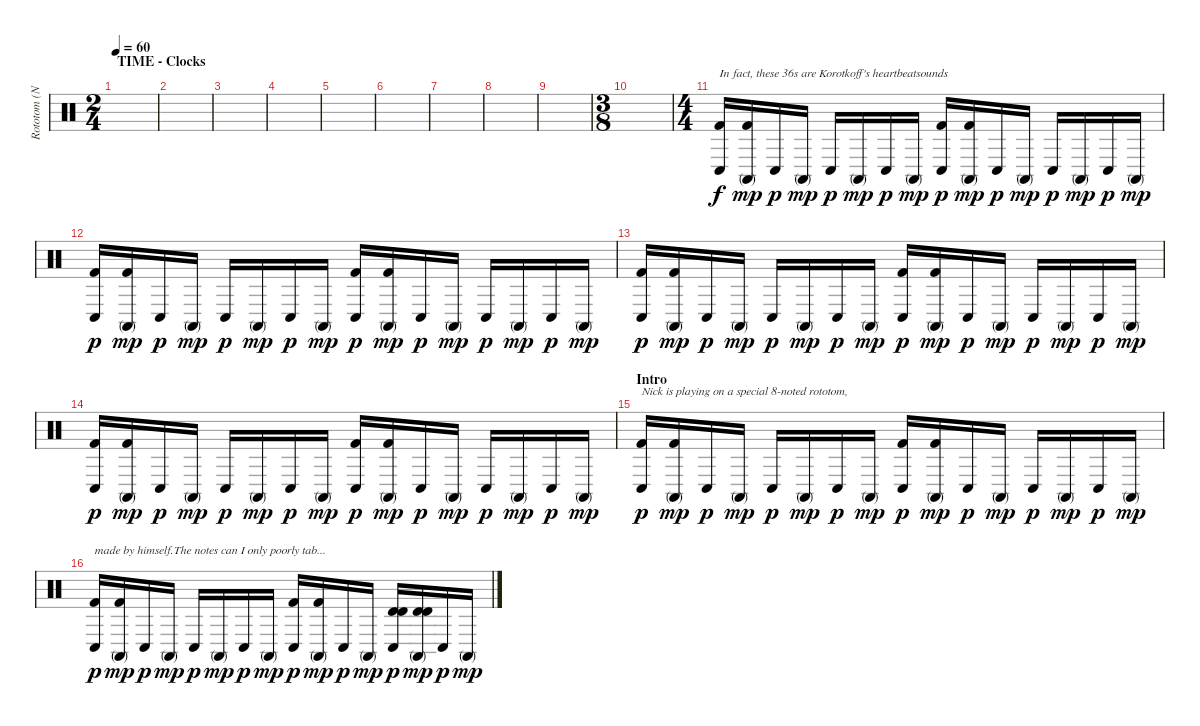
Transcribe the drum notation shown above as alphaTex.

\track ("Rototom (Nick)" "Rototom (N") {instrument percussion}
\staff {score}
\articulation defaults
\ts (2 4)
\section ("" "TIME - Clocks")
\tempo 60
\clef neutral
\ks c
|
|
|
|
|
|
|
|
|
\ts (3 8)
|
\ts (4 4)
("Kick (hit) 2" "Conga low (hit)").16{txt "In fact, these 36s are Korotkoff's heartbeatsounds" volume 13} ("Kick (hit) 2" "Conga high (mute)").16{dy mp} "Conga low (hit)".16{dy p} "Conga high (mute)".16{dy mp} "Conga low (hit)".16{dy p} "Conga high (mute)".16{dy mp} "Conga low (hit)".16{dy p} "Conga high (mute)".16{dy mp} ("Kick (hit) 2" "Conga low (hit)").16{dy p} ("Kick (hit) 2" "Conga high (mute)").16{dy mp} "Conga low (hit)".16{dy p} "Conga high (mute)".16{dy mp} "Conga low (hit)".16{dy p} "Conga high (mute)".16{dy mp} "Conga low (hit)".16{dy p} "Conga high (mute)".16{dy mp} |
("Kick (hit) 2" "Conga low (hit)").16{dy p} ("Kick (hit) 2" "Conga high (mute)").16{dy mp} "Conga low (hit)".16{dy p} "Conga high (mute)".16{dy mp} "Conga low (hit)".16{dy p} "Conga high (mute)".16{dy mp} "Conga low (hit)".16{dy p} "Conga high (mute)".16{dy mp} ("Kick (hit) 2" "Conga low (hit)").16{dy p} ("Kick (hit) 2" "Conga high (mute)").16{dy mp} "Conga low (hit)".16{dy p} "Conga high (mute)".16{dy mp} "Conga low (hit)".16{dy p} "Conga high (mute)".16{dy mp} "Conga low (hit)".16{dy p} "Conga high (mute)".16{dy mp} |
("Kick (hit) 2" "Conga low (hit)").16{dy p} ("Kick (hit) 2" "Conga high (mute)").16{dy mp} "Conga low (hit)".16{dy p} "Conga high (mute)".16{dy mp} "Conga low (hit)".16{dy p} "Conga high (mute)".16{dy mp} "Conga low (hit)".16{dy p} "Conga high (mute)".16{dy mp} ("Kick (hit) 2" "Conga low (hit)").16{dy p} ("Kick (hit) 2" "Conga high (mute)").16{dy mp} "Conga low (hit)".16{dy p} "Conga high (mute)".16{dy mp} "Conga low (hit)".16{dy p} "Conga high (mute)".16{dy mp} "Conga low (hit)".16{dy p} "Conga high (mute)".16{dy mp} |
("Kick (hit) 2" "Conga low (hit)").16{dy p} ("Kick (hit) 2" "Conga high (mute)").16{dy mp} "Conga low (hit)".16{dy p} "Conga high (mute)".16{dy mp} "Conga low (hit)".16{dy p} "Conga high (mute)".16{dy mp} "Conga low (hit)".16{dy p} "Conga high (mute)".16{dy mp} ("Kick (hit) 2" "Conga low (hit)").16{dy p} ("Kick (hit) 2" "Conga high (mute)").16{dy mp} "Conga low (hit)".16{dy p} "Conga high (mute)".16{dy mp} "Conga low (hit)".16{dy p} "Conga high (mute)".16{dy mp} "Conga low (hit)".16{dy p} "Conga high (mute)".16{dy mp} |
\section ("" "Intro")
("Kick (hit) 2" "Conga low (hit)").16{txt "Nick is playing on a special 8-noted rototom," dy p} ("Kick (hit) 2" "Conga high (mute)").16{dy mp} "Conga low (hit)".16{dy p} "Conga high (mute)".16{dy mp} "Conga low (hit)".16{dy p} "Conga high (mute)".16{dy mp} "Conga low (hit)".16{dy p} "Conga high (mute)".16{dy mp} ("Kick (hit) 2" "Conga low (hit)").16{dy p} ("Kick (hit) 2" "Conga high (mute)").16{dy mp} "Conga low (hit)".16{dy p} "Conga high (mute)".16{dy mp} "Conga low (hit)".16{dy p} "Conga high (mute)".16{dy mp} "Conga low (hit)".16{dy p} "Conga high (mute)".16{dy mp} |
("Kick (hit) 2" "Conga low (hit)").16{txt "made by himself.The notes can I only poorly tab..." dy p} ("Kick (hit) 2" "Conga high (mute)").16{dy mp} "Conga low (hit)".16{dy p} "Conga high (mute)".16{dy mp} "Conga low (hit)".16{dy p} "Conga high (mute)".16{dy mp} "Conga low (hit)".16{dy p} "Conga high (mute)".16{dy mp} ("Kick (hit) 2" "Conga low (hit)").16{dy p} ("Kick (hit) 2" "Conga high (mute)").16{dy mp} "Conga low (hit)".16{dy p} "Conga high (mute)".16{dy mp} ("Timbale high (hit)" "Timbale high (hit)" "Conga low (hit)").16{dy p} ("Timbale high (hit)" "Timbale high (hit)" "Conga high (mute)").16{dy mp} "Conga low (hit)".16{dy p} "Conga high (mute)".16{dy mp}
